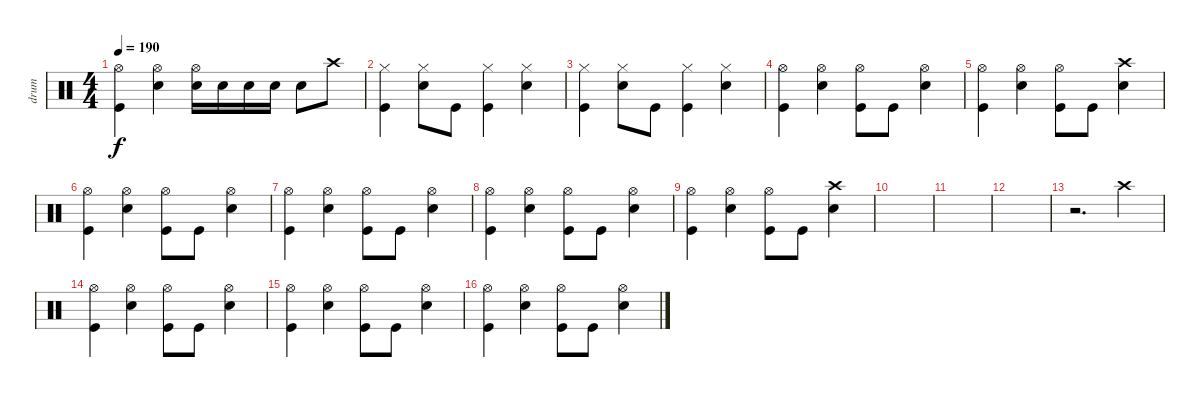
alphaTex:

\track ("drum" "drum") {instrument percussion}
\staff {score}
\articulation defaults
\ts (4 4)
\tempo 190
\clef neutral
\ks c
("Kick (hit)" "Hi-Hat (open)").4{dy f} ("Snare (hit) 2" "Hi-Hat (open)").4 ("Snare (hit) 2" "Hi-Hat (open)").16 "Snare (hit) 2".16 "Snare (hit) 2".16 "Snare (hit) 2".16 "Snare (hit) 2".8 "Crash high (hit)".8 |
("Hi-Hat (closed)" "Kick (hit)").4 ("Hi-Hat (closed)" "Snare (hit) 2").8 "Kick (hit)".8 ("Hi-Hat (closed)" "Kick (hit)").4 ("Hi-Hat (closed)" "Snare (hit) 2").4 |
("Hi-Hat (closed)" "Kick (hit)").4 ("Hi-Hat (closed)" "Snare (hit) 2").8 "Kick (hit)".8 ("Hi-Hat (closed)" "Kick (hit)").4 ("Hi-Hat (closed)" "Snare (hit) 2").4 |
("Kick (hit)" "Hi-Hat (open)").4 ("Snare (hit) 2" "Hi-Hat (open)").4 ("Kick (hit)" "Hi-Hat (open)").8 "Kick (hit)".8 ("Snare (hit) 2" "Hi-Hat (open)").4 |
("Kick (hit)" "Hi-Hat (open)").4 ("Snare (hit) 2" "Hi-Hat (open)").4 ("Kick (hit)" "Hi-Hat (open)").8 "Kick (hit)".8 ("Snare (hit) 2" "Crash high (hit)").4 |
("Kick (hit)" "Hi-Hat (open)").4 ("Snare (hit) 2" "Hi-Hat (open)").4 ("Kick (hit)" "Hi-Hat (open)").8 "Kick (hit)".8 ("Snare (hit) 2" "Hi-Hat (open)").4 |
("Kick (hit)" "Hi-Hat (open)").4 ("Snare (hit) 2" "Hi-Hat (open)").4 ("Kick (hit)" "Hi-Hat (open)").8 "Kick (hit)".8 ("Snare (hit) 2" "Hi-Hat (open)").4 |
("Kick (hit)" "Hi-Hat (open)").4 ("Snare (hit) 2" "Hi-Hat (open)").4 ("Kick (hit)" "Hi-Hat (open)").8 "Kick (hit)".8 ("Snare (hit) 2" "Hi-Hat (open)").4 |
("Kick (hit)" "Hi-Hat (open)").4 ("Snare (hit) 2" "Hi-Hat (open)").4 ("Kick (hit)" "Hi-Hat (open)").8 "Kick (hit)".8 ("Snare (hit) 2" "Crash high (hit)").4 |
|
|
|
r.2{d} "Crash high (hit)".4 |
("Kick (hit)" "Hi-Hat (open)").4 ("Snare (hit) 2" "Hi-Hat (open)").4 ("Kick (hit)" "Hi-Hat (open)").8 "Kick (hit)".8 ("Snare (hit) 2" "Hi-Hat (open)").4 |
("Kick (hit)" "Hi-Hat (open)").4 ("Snare (hit) 2" "Hi-Hat (open)").4 ("Kick (hit)" "Hi-Hat (open)").8 "Kick (hit)".8 ("Snare (hit) 2" "Hi-Hat (open)").4 |
("Kick (hit)" "Hi-Hat (open)").4 ("Snare (hit) 2" "Hi-Hat (open)").4 ("Kick (hit)" "Hi-Hat (open)").8 "Kick (hit)".8 ("Snare (hit) 2" "Hi-Hat (open)").4
